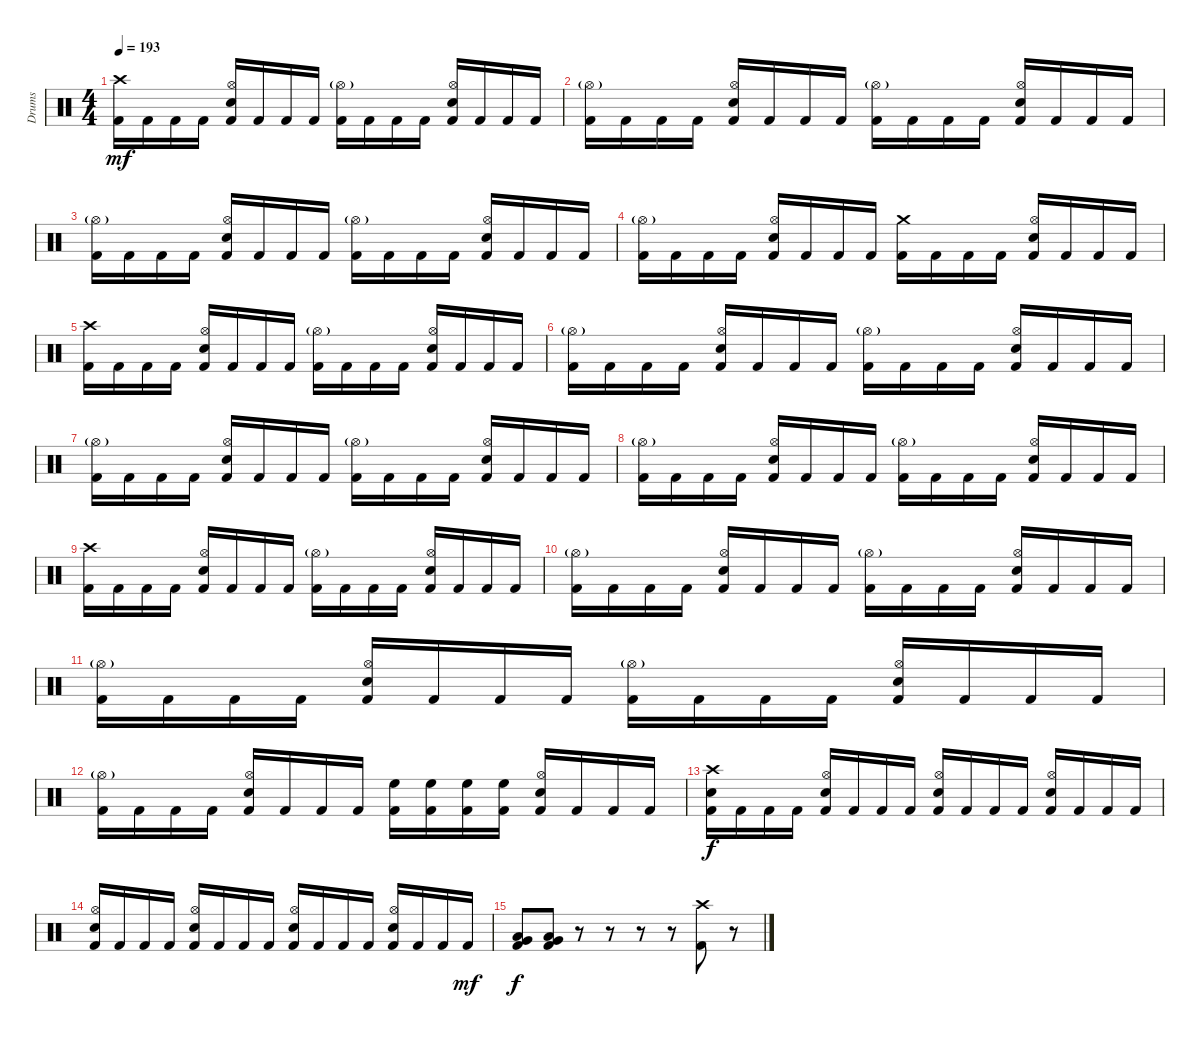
\track ("Drums" "Drums") {instrument percussion}
\staff {score}
\articulation defaults
\ts (4 4)
\tempo 193
\clef neutral
\ks c
("Crash high (hit)" "Kick (hit) 2").16{dy mf} "Kick (hit) 2".16 "Kick (hit) 2".16 "Kick (hit) 2".16 ("Hi-Hat (open)" "Electric Snare (hit)" "Kick (hit) 2").16 "Kick (hit) 2".16 "Kick (hit) 2".16 "Kick (hit) 2".16 ("Hi-Hat (open)"{g} "Kick (hit) 2").16 "Kick (hit) 2".16 "Kick (hit) 2".16 "Kick (hit) 2".16 ("Hi-Hat (open)" "Electric Snare (hit)" "Kick (hit) 2").16 "Kick (hit) 2".16 "Kick (hit) 2".16 "Kick (hit) 2".16 |
("Hi-Hat (open)"{g} "Kick (hit) 2").16 "Kick (hit) 2".16 "Kick (hit) 2".16 "Kick (hit) 2".16 ("Hi-Hat (open)" "Electric Snare (hit)" "Kick (hit) 2").16 "Kick (hit) 2".16 "Kick (hit) 2".16 "Kick (hit) 2".16 ("Hi-Hat (open)"{g} "Kick (hit) 2").16 "Kick (hit) 2".16 "Kick (hit) 2".16 "Kick (hit) 2".16 ("Hi-Hat (open)" "Electric Snare (hit)" "Kick (hit) 2").16 "Kick (hit) 2".16 "Kick (hit) 2".16 "Kick (hit) 2".16 |
("Hi-Hat (open)"{g} "Kick (hit) 2").16 "Kick (hit) 2".16 "Kick (hit) 2".16 "Kick (hit) 2".16 ("Hi-Hat (open)" "Electric Snare (hit)" "Kick (hit) 2").16 "Kick (hit) 2".16 "Kick (hit) 2".16 "Kick (hit) 2".16 ("Hi-Hat (open)"{g} "Kick (hit) 2").16 "Kick (hit) 2".16 "Kick (hit) 2".16 "Kick (hit) 2".16 ("Hi-Hat (open)" "Electric Snare (hit)" "Kick (hit) 2").16 "Kick (hit) 2".16 "Kick (hit) 2".16 "Kick (hit) 2".16 |
("Hi-Hat (open)"{g} "Kick (hit) 2").16 "Kick (hit) 2".16 "Kick (hit) 2".16 "Kick (hit) 2".16 ("Hi-Hat (open)" "Electric Snare (hit)" "Kick (hit) 2").16 "Kick (hit) 2".16 "Kick (hit) 2".16 "Kick (hit) 2".16 ("Crash medium (hit)" "Kick (hit) 2").16 "Kick (hit) 2".16 "Kick (hit) 2".16 "Kick (hit) 2".16 ("Hi-Hat (open)" "Electric Snare (hit)" "Kick (hit) 2").16 "Kick (hit) 2".16 "Kick (hit) 2".16 "Kick (hit) 2".16 |
("Crash high (hit)" "Kick (hit) 2").16 "Kick (hit) 2".16 "Kick (hit) 2".16 "Kick (hit) 2".16 ("Hi-Hat (open)" "Electric Snare (hit)" "Kick (hit) 2").16 "Kick (hit) 2".16 "Kick (hit) 2".16 "Kick (hit) 2".16 ("Hi-Hat (open)"{g} "Kick (hit) 2").16 "Kick (hit) 2".16 "Kick (hit) 2".16 "Kick (hit) 2".16 ("Hi-Hat (open)" "Electric Snare (hit)" "Kick (hit) 2").16 "Kick (hit) 2".16 "Kick (hit) 2".16 "Kick (hit) 2".16 |
("Hi-Hat (open)"{g} "Kick (hit) 2").16 "Kick (hit) 2".16 "Kick (hit) 2".16 "Kick (hit) 2".16 ("Hi-Hat (open)" "Electric Snare (hit)" "Kick (hit) 2").16 "Kick (hit) 2".16 "Kick (hit) 2".16 "Kick (hit) 2".16 ("Hi-Hat (open)"{g} "Kick (hit) 2").16 "Kick (hit) 2".16 "Kick (hit) 2".16 "Kick (hit) 2".16 ("Hi-Hat (open)" "Electric Snare (hit)" "Kick (hit) 2").16 "Kick (hit) 2".16 "Kick (hit) 2".16 "Kick (hit) 2".16 |
("Hi-Hat (open)"{g} "Kick (hit) 2").16 "Kick (hit) 2".16 "Kick (hit) 2".16 "Kick (hit) 2".16 ("Hi-Hat (open)" "Electric Snare (hit)" "Kick (hit) 2").16 "Kick (hit) 2".16 "Kick (hit) 2".16 "Kick (hit) 2".16 ("Hi-Hat (open)"{g} "Kick (hit) 2").16 "Kick (hit) 2".16 "Kick (hit) 2".16 "Kick (hit) 2".16 ("Hi-Hat (open)" "Electric Snare (hit)" "Kick (hit) 2").16 "Kick (hit) 2".16 "Kick (hit) 2".16 "Kick (hit) 2".16 |
("Hi-Hat (open)"{g} "Kick (hit) 2").16 "Kick (hit) 2".16 "Kick (hit) 2".16 "Kick (hit) 2".16 ("Hi-Hat (open)" "Electric Snare (hit)" "Kick (hit) 2").16 "Kick (hit) 2".16 "Kick (hit) 2".16 "Kick (hit) 2".16 ("Hi-Hat (open)"{g} "Kick (hit) 2").16 "Kick (hit) 2".16 "Kick (hit) 2".16 "Kick (hit) 2".16 ("Hi-Hat (open)" "Electric Snare (hit)" "Kick (hit) 2").16 "Kick (hit) 2".16 "Kick (hit) 2".16 "Kick (hit) 2".16 |
("Crash high (hit)" "Kick (hit) 2").16 "Kick (hit) 2".16 "Kick (hit) 2".16 "Kick (hit) 2".16 ("Hi-Hat (open)" "Electric Snare (hit)" "Kick (hit) 2").16 "Kick (hit) 2".16 "Kick (hit) 2".16 "Kick (hit) 2".16 ("Hi-Hat (open)"{g} "Kick (hit) 2").16 "Kick (hit) 2".16 "Kick (hit) 2".16 "Kick (hit) 2".16 ("Hi-Hat (open)" "Electric Snare (hit)" "Kick (hit) 2").16 "Kick (hit) 2".16 "Kick (hit) 2".16 "Kick (hit) 2".16 |
("Hi-Hat (open)"{g} "Kick (hit) 2").16 "Kick (hit) 2".16 "Kick (hit) 2".16 "Kick (hit) 2".16 ("Hi-Hat (open)" "Electric Snare (hit)" "Kick (hit) 2").16 "Kick (hit) 2".16 "Kick (hit) 2".16 "Kick (hit) 2".16 ("Hi-Hat (open)"{g} "Kick (hit) 2").16 "Kick (hit) 2".16 "Kick (hit) 2".16 "Kick (hit) 2".16 ("Hi-Hat (open)" "Electric Snare (hit)" "Kick (hit) 2").16 "Kick (hit) 2".16 "Kick (hit) 2".16 "Kick (hit) 2".16 |
("Hi-Hat (open)"{g} "Kick (hit) 2").16 "Kick (hit) 2".16 "Kick (hit) 2".16 "Kick (hit) 2".16 ("Hi-Hat (open)" "Electric Snare (hit)" "Kick (hit) 2").16 "Kick (hit) 2".16 "Kick (hit) 2".16 "Kick (hit) 2".16 ("Hi-Hat (open)"{g} "Kick (hit) 2").16 "Kick (hit) 2".16 "Kick (hit) 2".16 "Kick (hit) 2".16 ("Hi-Hat (open)" "Electric Snare (hit)" "Kick (hit) 2").16 "Kick (hit) 2".16 "Kick (hit) 2".16 "Kick (hit) 2".16 |
("Hi-Hat (open)"{g} "Kick (hit) 2").16 "Kick (hit) 2".16 "Kick (hit) 2".16 "Kick (hit) 2".16 ("Hi-Hat (open)" "Electric Snare (hit)" "Kick (hit) 2").16 "Kick (hit) 2".16 "Kick (hit) 2".16 "Kick (hit) 2".16 ("High Floor Tom (hit)" "Kick (hit) 2").16 ("High Floor Tom (hit)" "Kick (hit) 2").16 ("High Floor Tom (hit)" "Kick (hit) 2").16 ("High Floor Tom (hit)" "Kick (hit) 2").16 ("Hi-Hat (open)" "Electric Snare (hit)" "Kick (hit) 2").16 "Kick (hit) 2".16 "Kick (hit) 2".16 "Kick (hit) 2".16 |
("Crash high (hit)" "Electric Snare (hit)" "Kick (hit) 2").16{dy f} "Kick (hit) 2".16 "Kick (hit) 2".16 "Kick (hit) 2".16 ("Hi-Hat (open)" "Electric Snare (hit)" "Kick (hit) 2").16 "Kick (hit) 2".16 "Kick (hit) 2".16 "Kick (hit) 2".16 ("Hi-Hat (open)" "Electric Snare (hit)" "Kick (hit) 2").16 "Kick (hit) 2".16 "Kick (hit) 2".16 "Kick (hit) 2".16 ("Hi-Hat (open)" "Electric Snare (hit)" "Kick (hit) 2").16 "Kick (hit) 2".16 "Kick (hit) 2".16 "Kick (hit) 2".16 |
("Hi-Hat (open)" "Electric Snare (hit)" "Kick (hit) 2").16 "Kick (hit) 2".16 "Kick (hit) 2".16 "Kick (hit) 2".16 ("Hi-Hat (open)" "Electric Snare (hit)" "Kick (hit) 2").16 "Kick (hit) 2".16 "Kick (hit) 2".16 "Kick (hit) 2".16 ("Hi-Hat (open)" "Electric Snare (hit)" "Kick (hit) 2").16 "Kick (hit) 2".16 "Kick (hit) 2".16 "Kick (hit) 2".16 ("Hi-Hat (open)" "Electric Snare (hit)" "Kick (hit) 2").16 "Kick (hit) 2".16 "Kick (hit) 2".16 "Kick (hit) 2".16{dy mf} |
("Very Low Tom (hit)" "Low Tom (hit)" "Kick (hit) 2").8{dy f} ("Very Low Tom (hit)" "Low Tom (hit)" "Kick (hit) 2").8 r.8 r.8 r.8 r.8 ("Crash high (hit)" "Kick (hit) 2").8 r.8
